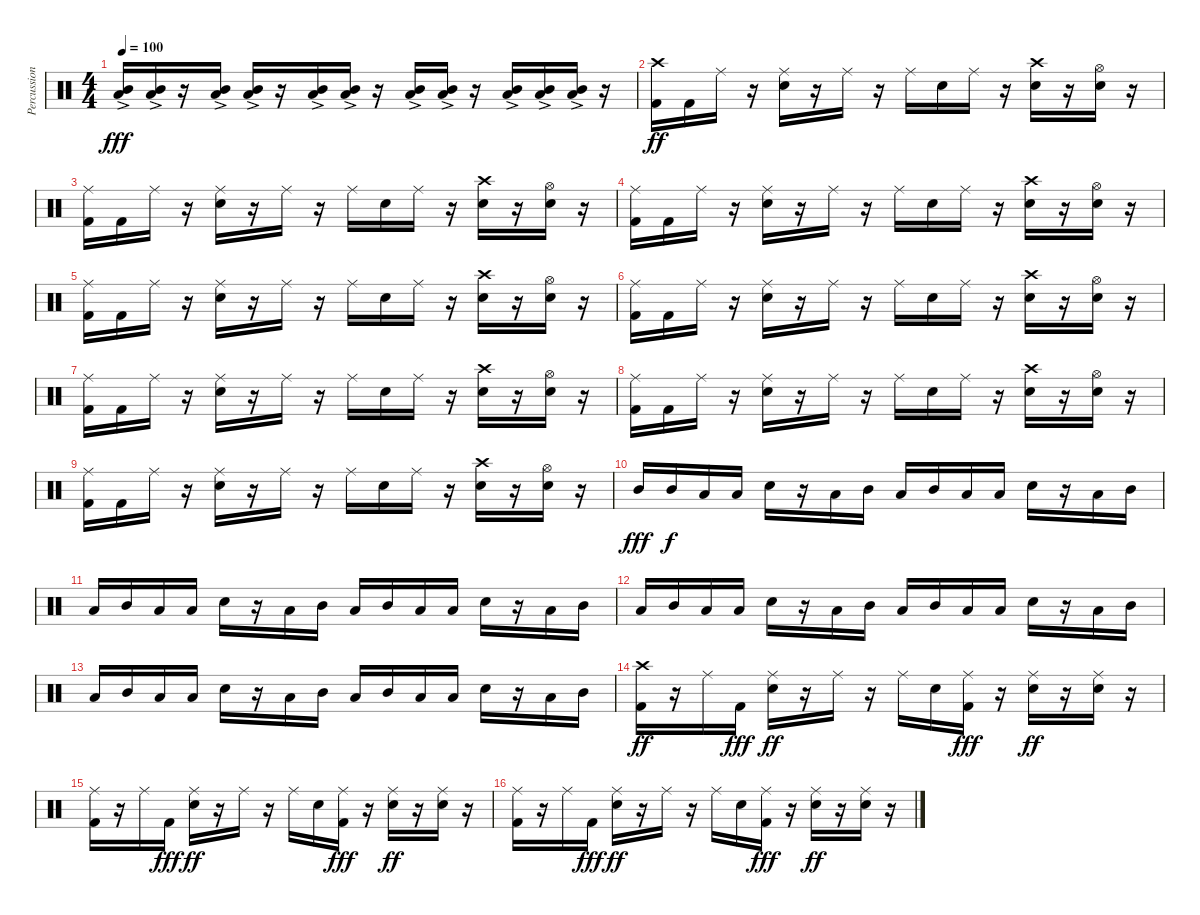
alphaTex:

\track ("Percussion" "Percussion") {instrument percussion}
\staff {score}
\articulation defaults
\ts (4 4)
\tempo 100
\clef neutral
\ks c
("Low Tom (hit)" "Mid Tom (hit)"{ac}).16{dy fff} ("Low Tom (hit)" "Mid Tom (hit)"{ac}).16 r.16 ("Low Tom (hit)" "Mid Tom (hit)"{ac}).16 ("Low Tom (hit)" "Mid Tom (hit)"{ac}).16 r.16 ("Low Tom (hit)" "Mid Tom (hit)"{ac}).16 ("Low Tom (hit)" "Mid Tom (hit)"{ac}).16 r.16 ("Low Tom (hit)" "Mid Tom (hit)"{ac}).16 ("Low Tom (hit)" "Mid Tom (hit)"{ac}).16 r.16 ("Low Tom (hit)" "Mid Tom (hit)"{ac}).16 ("Low Tom (hit)" "Mid Tom (hit)"{ac}).16 ("Low Tom (hit)" "Mid Tom (hit)"{ac}).16 r.16 |
("Crash high (hit)" "Kick (hit) 2").16{dy ff} "Kick (hit) 2".16 "Ride (middle)".16 r.16 ("Ride (middle)" "Electric Snare (hit)").16 r.16 "Ride (middle)".16 r.16 "Ride (middle)".16 "Electric Snare (hit)".16 "Ride (middle)".16 r.16 ("Crash high (hit)" "Electric Snare (hit)").16 r.16 ("Hi-Hat (open)" "Electric Snare (hit)").16 r.16 |
("Ride (middle)" "Kick (hit) 2").16 "Kick (hit) 2".16 "Ride (middle)".16 r.16 ("Ride (middle)" "Electric Snare (hit)").16 r.16 "Ride (middle)".16 r.16 "Ride (middle)".16 "Electric Snare (hit)".16 "Ride (middle)".16 r.16 ("Crash high (hit)" "Electric Snare (hit)").16 r.16 ("Hi-Hat (open)" "Electric Snare (hit)").16 r.16 |
("Ride (middle)" "Kick (hit) 2").16 "Kick (hit) 2".16 "Ride (middle)".16 r.16 ("Ride (middle)" "Electric Snare (hit)").16 r.16 "Ride (middle)".16 r.16 "Ride (middle)".16 "Electric Snare (hit)".16 "Ride (middle)".16 r.16 ("Crash high (hit)" "Electric Snare (hit)").16 r.16 ("Hi-Hat (open)" "Electric Snare (hit)").16 r.16 |
("Ride (middle)" "Kick (hit) 2").16 "Kick (hit) 2".16 "Ride (middle)".16 r.16 ("Ride (middle)" "Electric Snare (hit)").16 r.16 "Ride (middle)".16 r.16 "Ride (middle)".16 "Electric Snare (hit)".16 "Ride (middle)".16 r.16 ("Crash high (hit)" "Electric Snare (hit)").16 r.16 ("Hi-Hat (open)" "Electric Snare (hit)").16 r.16 |
("Ride (middle)" "Kick (hit) 2").16 "Kick (hit) 2".16 "Ride (middle)".16 r.16 ("Ride (middle)" "Electric Snare (hit)").16 r.16 "Ride (middle)".16 r.16 "Ride (middle)".16 "Electric Snare (hit)".16 "Ride (middle)".16 r.16 ("Crash high (hit)" "Electric Snare (hit)").16 r.16 ("Hi-Hat (open)" "Electric Snare (hit)").16 r.16 |
("Ride (middle)" "Kick (hit) 2").16 "Kick (hit) 2".16 "Ride (middle)".16 r.16 ("Ride (middle)" "Electric Snare (hit)").16 r.16 "Ride (middle)".16 r.16 "Ride (middle)".16 "Electric Snare (hit)".16 "Ride (middle)".16 r.16 ("Crash high (hit)" "Electric Snare (hit)").16 r.16 ("Hi-Hat (open)" "Electric Snare (hit)").16 r.16 |
("Ride (middle)" "Kick (hit) 2").16 "Kick (hit) 2".16 "Ride (middle)".16 r.16 ("Ride (middle)" "Electric Snare (hit)").16 r.16 "Ride (middle)".16 r.16 "Ride (middle)".16 "Electric Snare (hit)".16 "Ride (middle)".16 r.16 ("Crash high (hit)" "Electric Snare (hit)").16 r.16 ("Hi-Hat (open)" "Electric Snare (hit)").16 r.16 |
("Ride (middle)" "Kick (hit) 2").16 "Kick (hit) 2".16 "Ride (middle)".16 r.16 ("Ride (middle)" "Electric Snare (hit)").16 r.16 "Ride (middle)".16 r.16 "Ride (middle)".16 "Electric Snare (hit)".16 "Ride (middle)".16 r.16 ("Crash high (hit)" "Electric Snare (hit)").16 r.16 ("Hi-Hat (open)" "Electric Snare (hit)").16 r.16 |
"Mid Tom (hit)".16{dy fff} "Mid Tom (hit)".16{dy f} "Low Tom (hit)".16 "Low Tom (hit)".16 "Electric Snare (hit)".16 r.16 "Low Tom (hit)".16 "Mid Tom (hit)".16 "Low Tom (hit)".16 "Mid Tom (hit)".16 "Low Tom (hit)".16 "Low Tom (hit)".16 "Electric Snare (hit)".16 r.16 "Low Tom (hit)".16 "Mid Tom (hit)".16 |
"Low Tom (hit)".16 "Mid Tom (hit)".16 "Low Tom (hit)".16 "Low Tom (hit)".16 "Electric Snare (hit)".16 r.16 "Low Tom (hit)".16 "Mid Tom (hit)".16 "Low Tom (hit)".16 "Mid Tom (hit)".16 "Low Tom (hit)".16 "Low Tom (hit)".16 "Electric Snare (hit)".16 r.16 "Low Tom (hit)".16 "Mid Tom (hit)".16 |
"Low Tom (hit)".16 "Mid Tom (hit)".16 "Low Tom (hit)".16 "Low Tom (hit)".16 "Electric Snare (hit)".16 r.16 "Low Tom (hit)".16 "Mid Tom (hit)".16 "Low Tom (hit)".16 "Mid Tom (hit)".16 "Low Tom (hit)".16 "Low Tom (hit)".16 "Electric Snare (hit)".16 r.16 "Low Tom (hit)".16 "Mid Tom (hit)".16 |
"Low Tom (hit)".16 "Mid Tom (hit)".16 "Low Tom (hit)".16 "Low Tom (hit)".16 "Electric Snare (hit)".16 r.16 "Low Tom (hit)".16 "Mid Tom (hit)".16 "Low Tom (hit)".16 "Mid Tom (hit)".16 "Low Tom (hit)".16 "Low Tom (hit)".16 "Electric Snare (hit)".16 r.16 "Low Tom (hit)".16 "Mid Tom (hit)".16 |
("Crash high (hit)" "Kick (hit) 2").16{dy ff} r.16 "Ride (middle)".16 "Kick (hit) 2".16{dy fff} ("Ride (middle)" "Electric Snare (hit)").16{dy ff} r.16 "Ride (middle)".16 r.16 "Ride (middle)".16 "Electric Snare (hit)".16 ("Ride (middle)" "Kick (hit) 2").16{dy fff} r.16 ("Ride (middle)" "Electric Snare (hit)").16{dy ff} r.16 ("Ride (middle)" "Electric Snare (hit)").16 r.16 |
("Ride (middle)" "Kick (hit) 2").16 r.16 "Ride (middle)".16 "Kick (hit) 2".16{dy fff} ("Ride (middle)" "Electric Snare (hit)").16{dy ff} r.16 "Ride (middle)".16 r.16 "Ride (middle)".16 "Electric Snare (hit)".16 ("Ride (middle)" "Kick (hit) 2").16{dy fff} r.16 ("Ride (middle)" "Electric Snare (hit)").16{dy ff} r.16 ("Ride (middle)" "Electric Snare (hit)").16 r.16 |
("Ride (middle)" "Kick (hit) 2").16 r.16 "Ride (middle)".16 "Kick (hit) 2".16{dy fff} ("Ride (middle)" "Electric Snare (hit)").16{dy ff} r.16 "Ride (middle)".16 r.16 "Ride (middle)".16 "Electric Snare (hit)".16 ("Ride (middle)" "Kick (hit) 2").16{dy fff} r.16 ("Ride (middle)" "Electric Snare (hit)").16{dy ff} r.16 ("Ride (middle)" "Electric Snare (hit)").16 r.16
